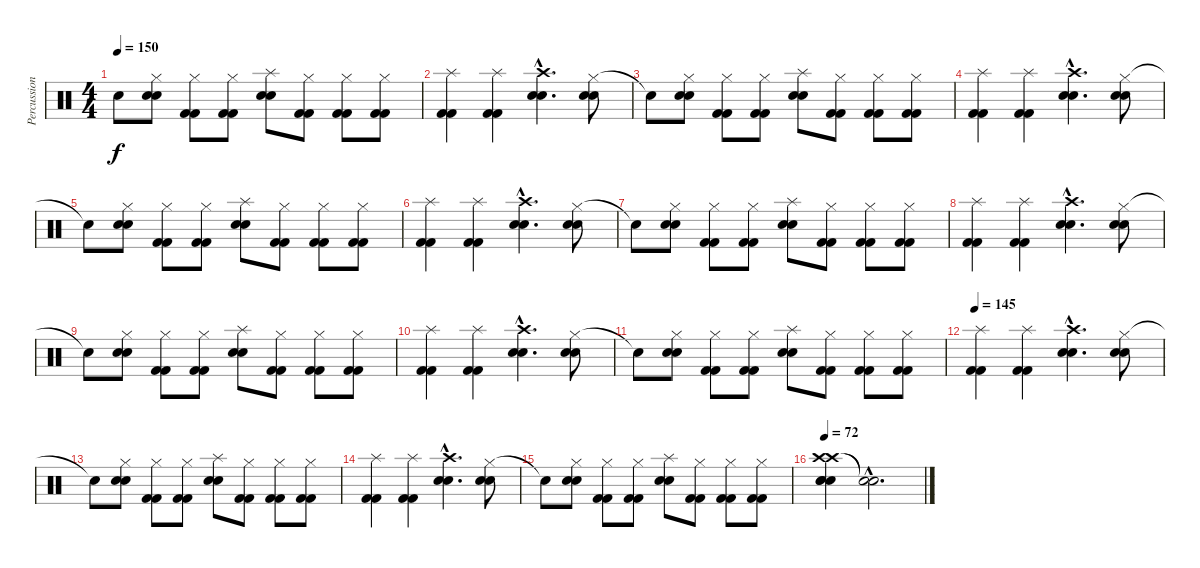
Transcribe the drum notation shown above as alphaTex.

\track ("Percussion" "Percussion") {instrument percussion}
\staff {score}
\articulation defaults
\ts (4 4)
\tempo 150
\clef neutral
\ks c "Snare (hit) 2"{t}.8{dy f}
("Hi-Hat (closed)" "Snare (hit) 2" "Snare (hit) 2").8 ("Hi-Hat (closed)" "Kick (hit) 2" "Kick (hit) 2").8 ("Hi-Hat (closed)" "Kick (hit) 2" "Kick (hit) 2").8 ("Splash (hit)" "Snare (hit) 2" "Snare (hit) 2").8 ("Hi-Hat (closed)" "Kick (hit) 2" "Kick (hit) 2").8 ("Hi-Hat (closed)" "Kick (hit) 2" "Kick (hit) 2").8 ("Hi-Hat (closed)" "Kick (hit) 2" "Kick (hit) 2").8 |
("Splash (hit)" "Kick (hit) 2" "Kick (hit) 2").4 ("Splash (hit)" "Kick (hit) 2" "Kick (hit) 2").4 ("Crash high (hit)"{hac} "Snare (hit) 2"{hac} "Snare (hit) 2"{hac}).4{d} ("Hi-Hat (closed)" "Snare (hit) 2" "Snare (hit) 2").8 |
"Snare (hit) 2"{t}.8 ("Hi-Hat (closed)" "Snare (hit) 2" "Snare (hit) 2").8 ("Hi-Hat (closed)" "Kick (hit) 2" "Kick (hit) 2").8 ("Hi-Hat (closed)" "Kick (hit) 2" "Kick (hit) 2").8 ("Splash (hit)" "Snare (hit) 2" "Snare (hit) 2").8 ("Hi-Hat (closed)" "Kick (hit) 2" "Kick (hit) 2").8 ("Hi-Hat (closed)" "Kick (hit) 2" "Kick (hit) 2").8 ("Hi-Hat (closed)" "Kick (hit) 2" "Kick (hit) 2").8 |
("Splash (hit)" "Kick (hit) 2" "Kick (hit) 2").4 ("Splash (hit)" "Kick (hit) 2" "Kick (hit) 2").4 ("Crash high (hit)"{hac} "Snare (hit) 2"{hac} "Snare (hit) 2"{hac}).4{d} ("Hi-Hat (closed)" "Snare (hit) 2" "Snare (hit) 2").8 |
"Snare (hit) 2"{t}.8 ("Hi-Hat (closed)" "Snare (hit) 2" "Snare (hit) 2").8 ("Hi-Hat (closed)" "Kick (hit) 2" "Kick (hit) 2").8 ("Hi-Hat (closed)" "Kick (hit) 2" "Kick (hit) 2").8 ("Splash (hit)" "Snare (hit) 2" "Snare (hit) 2").8 ("Hi-Hat (closed)" "Kick (hit) 2" "Kick (hit) 2").8 ("Hi-Hat (closed)" "Kick (hit) 2" "Kick (hit) 2").8 ("Hi-Hat (closed)" "Kick (hit) 2" "Kick (hit) 2").8 |
("Splash (hit)" "Kick (hit) 2" "Kick (hit) 2").4 ("Splash (hit)" "Kick (hit) 2" "Kick (hit) 2").4 ("Crash high (hit)"{hac} "Snare (hit) 2"{hac} "Snare (hit) 2"{hac}).4{d} ("Hi-Hat (closed)" "Snare (hit) 2" "Snare (hit) 2").8 |
"Snare (hit) 2"{t}.8 ("Hi-Hat (closed)" "Snare (hit) 2" "Snare (hit) 2").8 ("Hi-Hat (closed)" "Kick (hit) 2" "Kick (hit) 2").8 ("Hi-Hat (closed)" "Kick (hit) 2" "Kick (hit) 2").8 ("Splash (hit)" "Snare (hit) 2" "Snare (hit) 2").8 ("Hi-Hat (closed)" "Kick (hit) 2" "Kick (hit) 2").8 ("Hi-Hat (closed)" "Kick (hit) 2" "Kick (hit) 2").8 ("Hi-Hat (closed)" "Kick (hit) 2" "Kick (hit) 2").8 |
("Splash (hit)" "Kick (hit) 2" "Kick (hit) 2").4 ("Splash (hit)" "Kick (hit) 2" "Kick (hit) 2").4 ("Crash high (hit)"{hac} "Snare (hit) 2"{hac} "Snare (hit) 2"{hac}).4{d} ("Hi-Hat (closed)" "Snare (hit) 2" "Snare (hit) 2").8 |
"Snare (hit) 2"{t}.8 ("Hi-Hat (closed)" "Snare (hit) 2" "Snare (hit) 2").8 ("Hi-Hat (closed)" "Kick (hit) 2" "Kick (hit) 2").8 ("Hi-Hat (closed)" "Kick (hit) 2" "Kick (hit) 2").8 ("Splash (hit)" "Snare (hit) 2" "Snare (hit) 2").8 ("Hi-Hat (closed)" "Kick (hit) 2" "Kick (hit) 2").8 ("Hi-Hat (closed)" "Kick (hit) 2" "Kick (hit) 2").8 ("Hi-Hat (closed)" "Kick (hit) 2" "Kick (hit) 2").8 |
("Splash (hit)" "Kick (hit) 2" "Kick (hit) 2").4 ("Splash (hit)" "Kick (hit) 2" "Kick (hit) 2").4 ("Crash high (hit)"{hac} "Snare (hit) 2"{hac} "Snare (hit) 2"{hac}).4{d} ("Hi-Hat (closed)" "Snare (hit) 2" "Snare (hit) 2").8 |
"Snare (hit) 2"{t}.8 ("Hi-Hat (closed)" "Snare (hit) 2" "Snare (hit) 2").8 ("Hi-Hat (closed)" "Kick (hit) 2" "Kick (hit) 2").8 ("Hi-Hat (closed)" "Kick (hit) 2" "Kick (hit) 2").8 ("Splash (hit)" "Snare (hit) 2" "Snare (hit) 2").8 ("Hi-Hat (closed)" "Kick (hit) 2" "Kick (hit) 2").8 ("Hi-Hat (closed)" "Kick (hit) 2" "Kick (hit) 2").8 ("Hi-Hat (closed)" "Kick (hit) 2" "Kick (hit) 2").8 |
\tempo 145
("Splash (hit)" "Kick (hit) 2" "Kick (hit) 2").4 ("Splash (hit)" "Kick (hit) 2" "Kick (hit) 2").4 ("Crash high (hit)"{hac} "Snare (hit) 2"{hac} "Snare (hit) 2"{hac}).4{d} ("Hi-Hat (closed)" "Snare (hit) 2" "Snare (hit) 2").8 |
"Snare (hit) 2"{t}.8 ("Hi-Hat (closed)" "Snare (hit) 2" "Snare (hit) 2").8 ("Hi-Hat (closed)" "Kick (hit) 2" "Kick (hit) 2").8 ("Hi-Hat (closed)" "Kick (hit) 2" "Kick (hit) 2").8 ("Splash (hit)" "Snare (hit) 2" "Snare (hit) 2").8 ("Hi-Hat (closed)" "Kick (hit) 2" "Kick (hit) 2").8 ("Hi-Hat (closed)" "Kick (hit) 2" "Kick (hit) 2").8 ("Hi-Hat (closed)" "Kick (hit) 2" "Kick (hit) 2").8 |
("Splash (hit)" "Kick (hit) 2" "Kick (hit) 2").4 ("Splash (hit)" "Kick (hit) 2" "Kick (hit) 2").4 ("Crash high (hit)"{hac} "Snare (hit) 2"{hac} "Snare (hit) 2"{hac}).4{d} ("Hi-Hat (closed)" "Snare (hit) 2" "Snare (hit) 2").8 |
"Snare (hit) 2"{t}.8 ("Hi-Hat (closed)" "Snare (hit) 2" "Snare (hit) 2").8 ("Hi-Hat (closed)" "Kick (hit) 2" "Kick (hit) 2").8 ("Hi-Hat (closed)" "Kick (hit) 2" "Kick (hit) 2").8 ("Splash (hit)" "Snare (hit) 2" "Snare (hit) 2").8 ("Hi-Hat (closed)" "Kick (hit) 2" "Kick (hit) 2").8 ("Hi-Hat (closed)" "Kick (hit) 2" "Kick (hit) 2").8 ("Hi-Hat (closed)" "Kick (hit) 2" "Kick (hit) 2").8 |
\tempo 72
("Crash high (hit)" "Crash high (hit)" "Snare (hit) 2" "Snare (hit) 2" "Snare (hit) 2").4 ("Snare (hit)"{hac t} "Snare (hit)"{hac t}).2{d}
